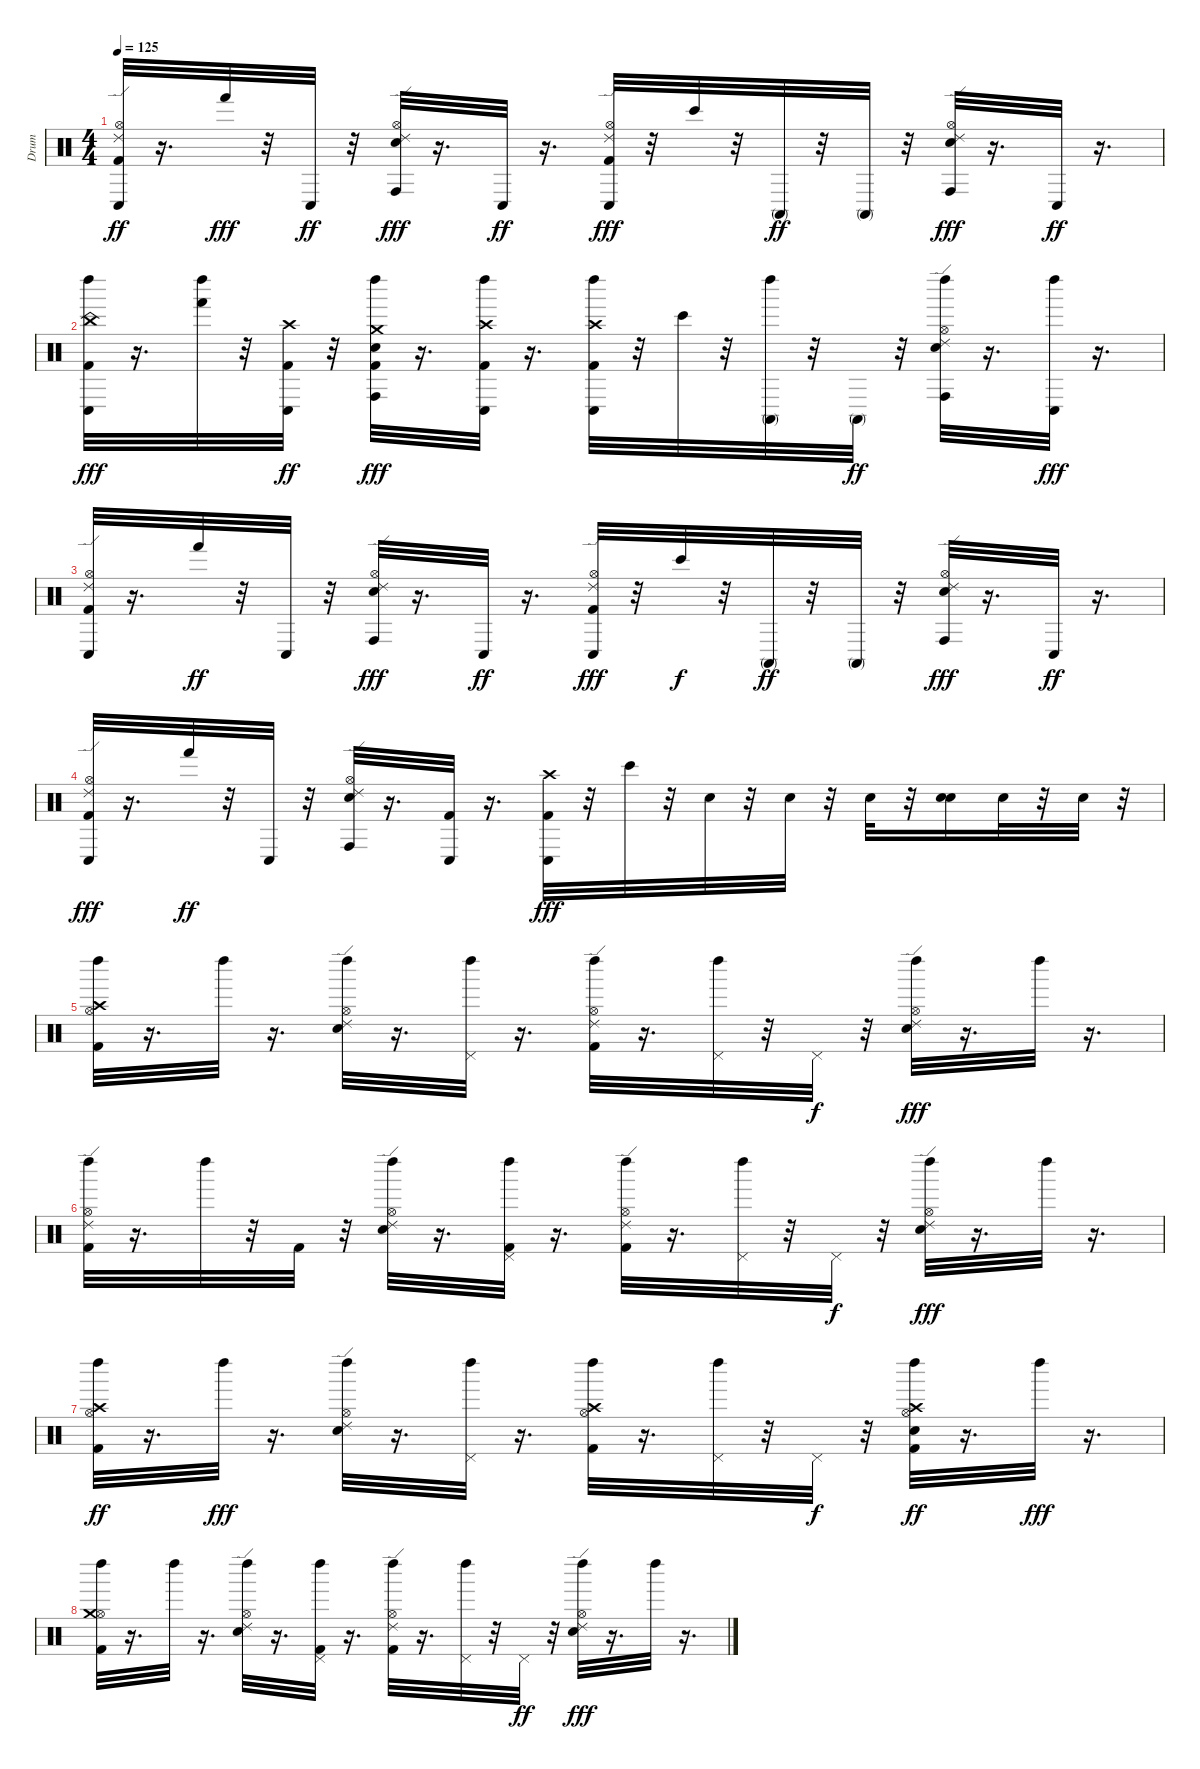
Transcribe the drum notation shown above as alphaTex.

\track ("Drum" "Drum") {instrument percussion}
\staff {score}
\articulation defaults
\ts (4 4)
\tempo 125
\clef neutral
\ks c
("Kick (hit) 2" "Hi-Hat (open)" "Conga low (hit)" "Ride (edge) 2").32{dy ff} r.16{d} "Hand (hit)".32{dy fff} r.32 "Conga low (hit)".32{dy ff} r.32 ("Hi-Hat (open)" "Conga high (hit)" "Electric Snare (hit)" "Ride (edge) 2").32{dy fff} r.16{d} "Conga low (hit)".32{dy ff} r.16{d} ("Kick (hit) 2" "Hi-Hat (open)" "Conga low (hit)" "Ride (edge) 2").32{dy fff} r.32 "Bongo High (hit)".32 r.32 "Conga high (mute)".32{dy ff} r.32 "Conga high (mute)".32 r.32 ("Hi-Hat (open)" "Conga high (hit)" "Electric Snare (hit)" "Ride (edge) 2").32{dy fff} r.16{d} "Conga low (hit)".32{dy ff} r.16{d} |
("Kick (hit) 2" "Conga low (hit)" "Left Maraca (hit)" "China (hit)").32{dy fff} r.16{d} ("Hand (hit)" "Left Maraca (hit)").32 r.32 ("Kick (hit) 2" "Conga low (hit)" "Crash high (hit)").32{dy ff} r.32 ("Kick (hit) 2" "Conga high (hit)" "Left Maraca (hit)" "Electric Snare (hit)" "Crash medium (hit)").32{dy fff} r.16{d} ("Kick (hit) 2" "Conga low (hit)" "Left Maraca (hit)" "Crash high (hit)").32 r.16{d} ("Kick (hit) 2" "Conga low (hit)" "Left Maraca (hit)" "Crash high (hit)").32 r.32 "Bongo High (hit)".32 r.32 ("Conga high (mute)" "Left Maraca (hit)").32 r.32 "Conga high (mute)".32{dy ff} r.32 ("Hi-Hat (open)" "Conga high (hit)" "Left Maraca (hit)" "Electric Snare (hit)" "Ride (edge) 2").32 r.16{d} ("Conga low (hit)" "Left Maraca (hit)").32{dy fff} r.16{d} |
("Kick (hit) 2" "Hi-Hat (open)" "Conga low (hit)" "Ride (edge) 2").32 r.16{d} "Hand (hit)".32{dy ff} r.32 "Conga low (hit)".32 r.32 ("Hi-Hat (open)" "Conga high (hit)" "Electric Snare (hit)" "Ride (edge) 2").32{dy fff} r.16{d} "Conga low (hit)".32{dy ff} r.16{d} ("Kick (hit) 2" "Hi-Hat (open)" "Conga low (hit)" "Ride (edge) 2").32{dy fff} r.32 "Bongo High (hit)".32{dy f} r.32 "Conga high (mute)".32{dy ff} r.32 "Conga high (mute)".32 r.32 ("Hi-Hat (open)" "Conga high (hit)" "Electric Snare (hit)" "Ride (edge) 2").32{dy fff} r.16{d} "Conga low (hit)".32{dy ff} r.16{d} |
("Kick (hit) 2" "Hi-Hat (open)" "Conga low (hit)" "Ride (edge) 2").32{dy fff} r.16{d} "Hand (hit)".32{dy ff} r.32 "Conga low (hit)".32 r.32 ("Hi-Hat (open)" "Conga high (hit)" "Electric Snare (hit)" "Ride (edge) 2").32 r.16{d} ("Kick (hit) 2" "Conga low (hit)").32 r.16{d} ("Kick (hit) 2" "Conga low (hit)" "Crash high (hit)").32{dy fff} r.32 "Bongo High (hit)".32 r.32 "Electric Snare (hit)".32 r.32 "Electric Snare (hit)".32 r.32 "Electric Snare (hit)".32 r.32 ("Electric Snare (hit)" "Electric Snare (hit)").16 "Electric Snare (hit)".32 r.32 "Electric Snare (hit)".32 r.32 |
("Kick (hit) 2" "Hi-Hat (open)" "Left Maraca (hit)" "Crash high (hit)").32 r.16{d} "Left Maraca (hit)".32 r.16{d} ("Hi-Hat (open)" "Left Maraca (hit)" "Electric Snare (hit)" "Ride (edge) 2").32 r.16{d} ("Pedal Hi-Hat (hit)" "Left Maraca (hit)").32 r.16{d} ("Kick (hit) 2" "Hi-Hat (open)" "Left Maraca (hit)" "Ride (edge) 2").32 r.16{d} ("Pedal Hi-Hat (hit)" "Left Maraca (hit)").32 r.32 "Pedal Hi-Hat (hit)".32{dy f} r.32 ("Hi-Hat (open)" "Left Maraca (hit)" "Electric Snare (hit)" "Ride (edge) 2").32{dy fff} r.16{d} "Left Maraca (hit)".32 r.16{d} |
("Kick (hit) 2" "Hi-Hat (open)" "Left Maraca (hit)" "Ride (edge) 2").32 r.16{d} "Left Maraca (hit)".32 r.32 "Kick (hit) 2".32 r.32 ("Hi-Hat (open)" "Left Maraca (hit)" "Electric Snare (hit)" "Ride (edge) 2").32 r.16{d} ("Kick (hit) 2" "Pedal Hi-Hat (hit)" "Left Maraca (hit)").32 r.16{d} ("Kick (hit) 2" "Hi-Hat (open)" "Left Maraca (hit)" "Ride (edge) 2").32 r.16{d} ("Pedal Hi-Hat (hit)" "Left Maraca (hit)").32 r.32 "Pedal Hi-Hat (hit)".32{dy f} r.32 ("Hi-Hat (open)" "Left Maraca (hit)" "Electric Snare (hit)" "Ride (edge) 2").32{dy fff} r.16{d} "Left Maraca (hit)".32 r.16{d} |
("Kick (hit) 2" "Hi-Hat (open)" "Left Maraca (hit)" "Crash high (hit)").32{dy ff} r.16{d} "Left Maraca (hit)".32{dy fff} r.16{d} ("Hi-Hat (open)" "Left Maraca (hit)" "Electric Snare (hit)" "Ride (edge) 2").32 r.16{d} ("Pedal Hi-Hat (hit)" "Left Maraca (hit)").32 r.16{d} ("Kick (hit) 2" "Hi-Hat (open)" "Left Maraca (hit)" "Crash high (hit)").32 r.16{d} ("Pedal Hi-Hat (hit)" "Left Maraca (hit)").32 r.32 "Pedal Hi-Hat (hit)".32{dy f} r.32 ("Kick (hit) 2" "Hi-Hat (open)" "Left Maraca (hit)" "Electric Snare (hit)" "Crash high (hit)").32{dy ff} r.16{d} "Left Maraca (hit)".32{dy fff} r.16{d} |
("Kick (hit) 2" "Hi-Hat (open)" "Left Maraca (hit)" "Crash medium (hit)").32 r.16{d} "Left Maraca (hit)".32 r.16{d} ("Hi-Hat (open)" "Left Maraca (hit)" "Electric Snare (hit)" "Ride (edge) 2").32 r.16{d} ("Kick (hit) 2" "Pedal Hi-Hat (hit)" "Left Maraca (hit)").32 r.16{d} ("Kick (hit) 2" "Hi-Hat (open)" "Left Maraca (hit)" "Ride (edge) 2").32 r.16{d} ("Pedal Hi-Hat (hit)" "Left Maraca (hit)").32 r.32 "Pedal Hi-Hat (hit)".32{dy ff} r.32 ("Hi-Hat (open)" "Left Maraca (hit)" "Electric Snare (hit)" "Ride (edge) 2").32{dy fff} r.16{d} "Left Maraca (hit)".32 r.16{d}
